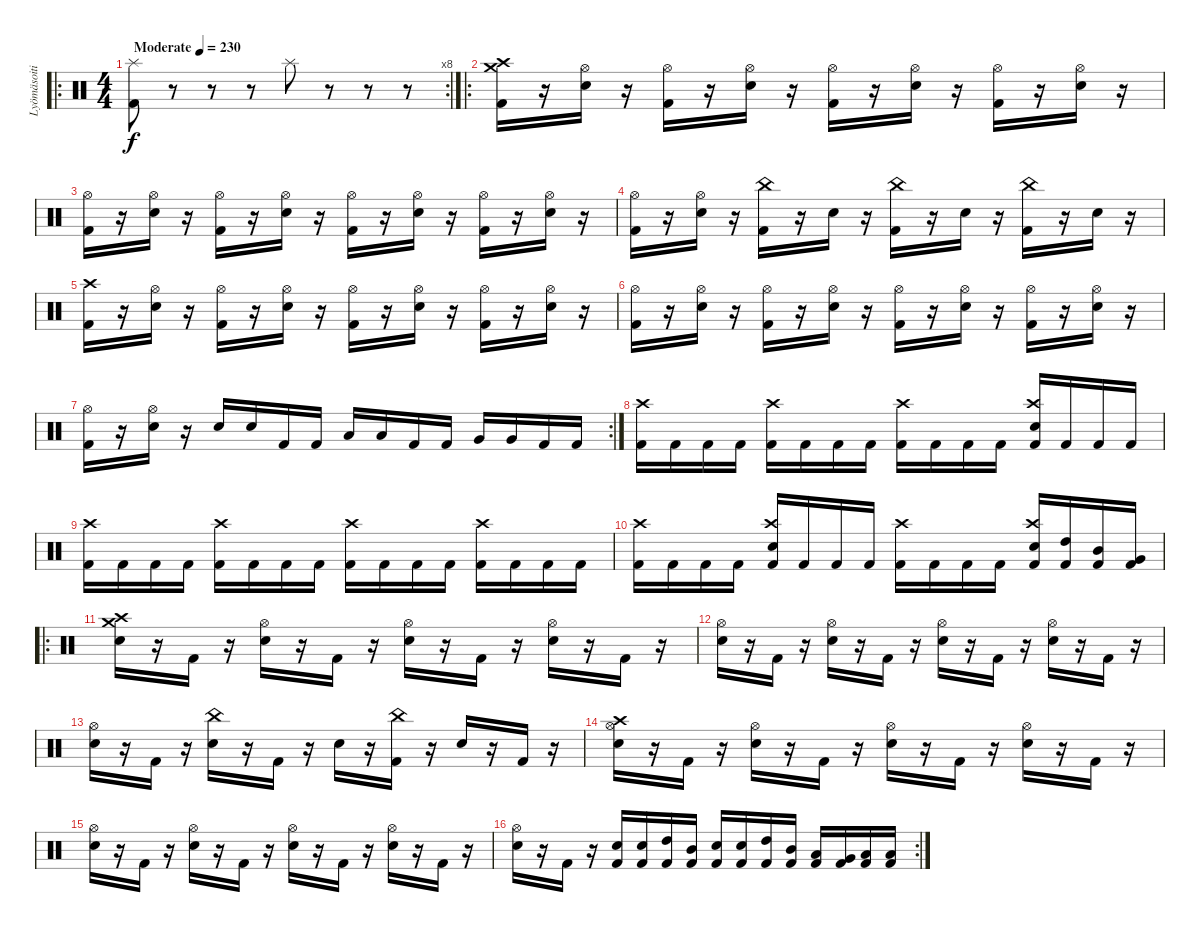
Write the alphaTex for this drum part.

\track ("Lyömäsoitin" "Lyömäsoiti") {instrument percussion}
\staff {score}
\articulation defaults
\ro
\rc 8
\ts (4 4)
\tempo (230 "Moderate")
\clef neutral
\ks c
("Splash (hit)" "Kick (hit) 2").8{dy f} r.8 r.8 r.8 "Splash (hit)".8 r.8 r.8 r.8 |
\ro
("Crash high (hit)" "Crash medium (hit)" "Kick (hit) 2").16 r.16 ("Hi-Hat (open)" "Snare (hit) 2").16 r.16 ("Hi-Hat (open)" "Kick (hit) 2").16 r.16 ("Hi-Hat (open)" "Snare (hit) 2").16 r.16 ("Hi-Hat (open)" "Kick (hit) 2").16 r.16 ("Hi-Hat (open)" "Snare (hit) 2").16 r.16 ("Hi-Hat (open)" "Kick (hit) 2").16 r.16 ("Hi-Hat (open)" "Snare (hit) 2").16 r.16 |
("Hi-Hat (open)" "Kick (hit) 2").16 r.16 ("Hi-Hat (open)" "Snare (hit) 2").16 r.16 ("Hi-Hat (open)" "Kick (hit) 2").16 r.16 ("Hi-Hat (open)" "Snare (hit) 2").16 r.16 ("Hi-Hat (open)" "Kick (hit) 2").16 r.16 ("Hi-Hat (open)" "Snare (hit) 2").16 r.16 ("Hi-Hat (open)" "Kick (hit) 2").16 r.16 ("Hi-Hat (open)" "Snare (hit) 2").16 r.16 |
("Hi-Hat (open)" "Kick (hit) 2").16 r.16 ("Hi-Hat (open)" "Snare (hit) 2").16 r.16 ("China (hit)" "Kick (hit) 2").16 r.16 "Snare (hit) 2".16 r.16 ("China (hit)" "Kick (hit) 2").16 r.16 "Snare (hit) 2".16 r.16 ("China (hit)" "Kick (hit) 2").16 r.16 "Snare (hit) 2".16 r.16 |
("Crash high (hit)" "Kick (hit) 2").16 r.16 ("Hi-Hat (open)" "Snare (hit) 2").16 r.16 ("Hi-Hat (open)" "Kick (hit) 2").16 r.16 ("Hi-Hat (open)" "Snare (hit) 2").16 r.16 ("Hi-Hat (open)" "Kick (hit) 2").16 r.16 ("Hi-Hat (open)" "Snare (hit) 2").16 r.16 ("Hi-Hat (open)" "Kick (hit) 2").16 r.16 ("Hi-Hat (open)" "Snare (hit) 2").16 r.16 |
("Hi-Hat (open)" "Kick (hit) 2").16 r.16 ("Hi-Hat (open)" "Snare (hit) 2").16 r.16 ("Hi-Hat (open)" "Kick (hit) 2").16 r.16 ("Hi-Hat (open)" "Snare (hit) 2").16 r.16 ("Hi-Hat (open)" "Kick (hit) 2").16 r.16 ("Hi-Hat (open)" "Snare (hit) 2").16 r.16 ("Hi-Hat (open)" "Kick (hit) 2").16 r.16 ("Hi-Hat (open)" "Snare (hit) 2").16 r.16 |
\rc 2
("Hi-Hat (open)" "Kick (hit) 2").16 r.16 ("Hi-Hat (open)" "Snare (hit) 2").16 r.16 "Snare (hit) 2".16 "Snare (hit) 2".16 "Kick (hit) 2".16 "Kick (hit) 2".16 "Low Tom (hit)".16 "Low Tom (hit)".16 "Kick (hit) 2".16 "Kick (hit) 2".16 "Very Low Tom (hit)".16 "Very Low Tom (hit)".16 "Kick (hit) 2".16 "Kick (hit) 2".16 |
("Crash high (hit)" "Kick (hit) 2").16 "Kick (hit) 2".16 "Kick (hit) 2".16 "Kick (hit) 2".16 ("Crash high (hit)" "Kick (hit) 2").16 "Kick (hit) 2".16 "Kick (hit) 2".16 "Kick (hit) 2".16 ("Crash high (hit)" "Kick (hit) 2").16 "Kick (hit) 2".16 "Kick (hit) 2".16 "Kick (hit) 2".16 ("Crash high (hit)" "Snare (hit) 2" "Kick (hit) 2").16 "Kick (hit) 2".16 "Kick (hit) 2".16 "Kick (hit) 2".16 |
("Crash high (hit)" "Kick (hit) 2").16 "Kick (hit) 2".16 "Kick (hit) 2".16 "Kick (hit) 2".16 ("Crash high (hit)" "Kick (hit) 2").16 "Kick (hit) 2".16 "Kick (hit) 2".16 "Kick (hit) 2".16 ("Crash high (hit)" "Kick (hit) 2").16 "Kick (hit) 2".16 "Kick (hit) 2".16 "Kick (hit) 2".16 ("Crash high (hit)" "Kick (hit) 2").16 "Kick (hit) 2".16 "Kick (hit) 2".16 "Kick (hit) 2".16 |
("Crash high (hit)" "Kick (hit) 2").16 "Kick (hit) 2".16 "Kick (hit) 2".16 "Kick (hit) 2".16 ("Crash high (hit)" "Snare (hit) 2" "Kick (hit) 2").16 "Kick (hit) 2".16 "Kick (hit) 2".16 "Kick (hit) 2".16 ("Crash high (hit)" "Kick (hit) 2").16 "Kick (hit) 2".16 "Kick (hit) 2".16 "Kick (hit) 2".16 ("Crash high (hit)" "Snare (hit) 2" "Kick (hit) 2").16 ("High Tom (hit)" "Kick (hit) 2").16 ("Mid Tom (hit)" "Kick (hit) 2").16 ("Very Low Tom (hit)" "Kick (hit) 2").16 |
\ro
("Crash high (hit)" "Crash medium (hit)" "Snare (hit) 2").16 r.16 "Kick (hit) 2".16 r.16 ("Hi-Hat (open)" "Snare (hit) 2").16 r.16 "Kick (hit) 2".16 r.16 ("Hi-Hat (open)" "Snare (hit) 2").16 r.16 "Kick (hit) 2".16 r.16 ("Hi-Hat (open)" "Snare (hit) 2").16 r.16 "Kick (hit) 2".16 r.16 |
("Hi-Hat (open)" "Snare (hit) 2").16 r.16 "Kick (hit) 2".16 r.16 ("Hi-Hat (open)" "Snare (hit) 2").16 r.16 "Kick (hit) 2".16 r.16 ("Hi-Hat (open)" "Snare (hit) 2").16 r.16 "Kick (hit) 2".16 r.16 ("Hi-Hat (open)" "Snare (hit) 2").16 r.16 "Kick (hit) 2".16 r.16 |
("Hi-Hat (open)" "Snare (hit) 2").16 r.16 "Kick (hit) 2".16 r.16 ("China (hit)" "Snare (hit) 2").16 r.16 "Kick (hit) 2".16 r.16 "Snare (hit) 2".16 r.16 ("China (hit)" "Kick (hit) 2").16 r.16 "Snare (hit) 2".16 r.16 "Kick (hit) 2".16 r.16 |
("Crash high (hit)" "Hi-Hat (open)" "Snare (hit) 2").16 r.16 "Kick (hit) 2".16 r.16 ("Hi-Hat (open)" "Snare (hit) 2").16 r.16 "Kick (hit) 2".16 r.16 ("Hi-Hat (open)" "Snare (hit) 2").16 r.16 "Kick (hit) 2".16 r.16 ("Hi-Hat (open)" "Snare (hit) 2").16 r.16 "Kick (hit) 2".16 r.16 |
("Hi-Hat (open)" "Snare (hit) 2").16 r.16 "Kick (hit) 2".16 r.16 ("Hi-Hat (open)" "Snare (hit) 2").16 r.16 "Kick (hit) 2".16 r.16 ("Hi-Hat (open)" "Snare (hit) 2").16 r.16 "Kick (hit) 2".16 r.16 ("Hi-Hat (open)" "Snare (hit) 2").16 r.16 "Kick (hit) 2".16 r.16 |
\rc 2
("Hi-Hat (open)" "Snare (hit) 2").16 r.16 "Kick (hit) 2".16 r.16 ("Snare (hit) 2" "Kick (hit) 2").16 ("Snare (hit) 2" "Kick (hit) 2").16 ("High Tom (hit)" "Kick (hit) 2").16 ("Mid Tom (hit)" "Kick (hit) 2").16 ("Snare (hit) 2" "Kick (hit) 2").16 ("Snare (hit) 2" "Kick (hit) 2").16 ("High Tom (hit)" "Kick (hit) 2").16 ("Mid Tom (hit)" "Kick (hit) 2").16 ("Low Tom (hit)" "Kick (hit) 2").16 ("Very Low Tom (hit)" "Kick (hit) 2").16 ("Low Floor Tom (hit)" "Kick (hit) 2").16 ("Low Floor Tom (hit)" "Kick (hit) 2").16
